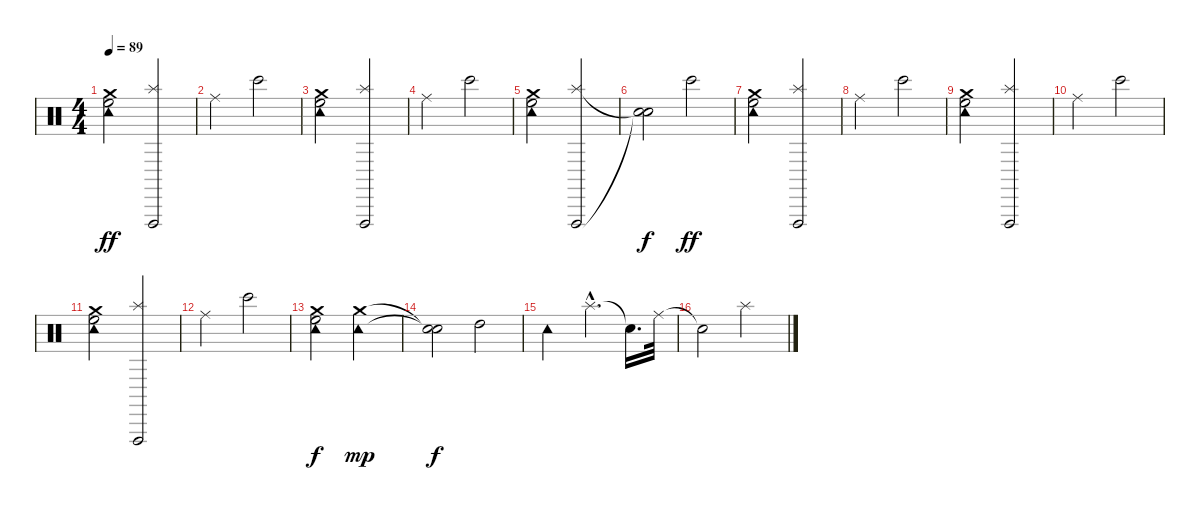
\track "" {instrument percussion}
\staff {score}
\articulation defaults
\ts (4 4)
\tempo 89
\clef neutral
\ks c
("High Floor Tom (hit)" "Tambourine (hit)" "Crash medium (hit)").2{dy ff} ("Splash (hit)" "Vibraslap (hit)").2 |
"Ride (middle)".2 "Bongo High (hit)".2 |
("Crash medium (hit)" "Tambourine (hit)" "High Floor Tom (hit)").2 ("Splash (hit)" "Vibraslap (hit)").2 |
"Ride (middle)".2 "Bongo High (hit)".2 |
("High Floor Tom (hit)" "Tambourine (hit)" "Crash medium (hit)").2 ("Splash (hit)" "Vibraslap (hit)").2 |
("Snare (hit)"{t} "Snare (hit)"{t}).2{dy f} "Bongo High (hit)".2{dy ff} |
("Crash medium (hit)" "Tambourine (hit)" "High Floor Tom (hit)").2 ("Splash (hit)" "Vibraslap (hit)").2 |
"Ride (middle)".2 "Bongo High (hit)".2 |
("High Floor Tom (hit)" "Tambourine (hit)" "Crash medium (hit)").2 ("Splash (hit)" "Vibraslap (hit)").2 |
"Ride (middle)".2 "Bongo High (hit)".2 |
("Crash medium (hit)" "Tambourine (hit)" "High Floor Tom (hit)").2 ("Vibraslap (hit)" "Splash (hit)").2 |
"Ride (middle)".2 "Bongo High (hit)".2 |
("High Floor Tom (hit)" "Crash medium (hit)" "Tambourine (hit)").2{dy f} ("Crash medium (hit)" "Tambourine (hit)").2{dy mp} |
("Snare (hit)"{t} "Snare (hit)"{t}).2{dy f} "High Tom (hit)".2 |
"Tambourine (hit)".2 "Splash (hit)"{hac}.4{d} "Snare (hit)"{t}.16{d} "Ride (middle)".32 |
"Snare (hit)"{t}.2 "Splash (hit)".2
